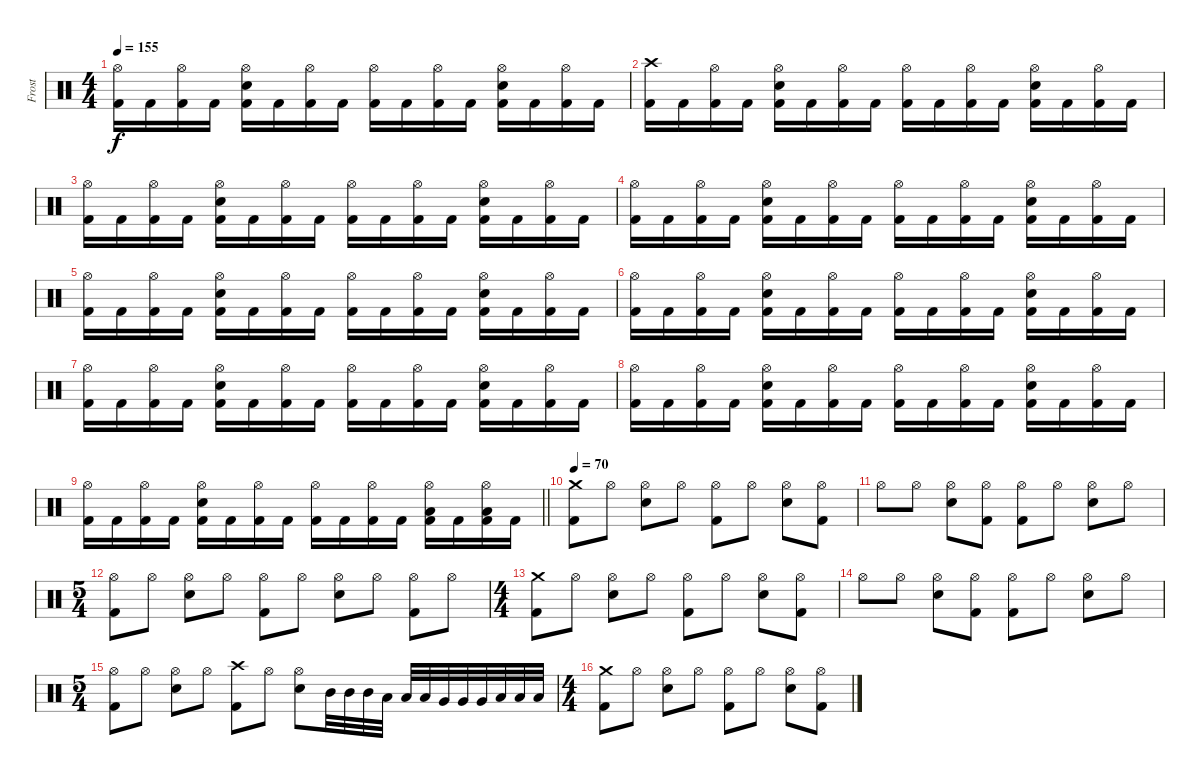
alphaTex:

\track ("Frost" "Frost") {instrument percussion}
\staff {score}
\articulation defaults
\ts (4 4)
\tempo 155
\clef neutral
\ks c
("Hi-Hat (open)" "Kick (hit) 2").16{dy f} "Kick (hit) 2".16 ("Hi-Hat (open)" "Kick (hit) 2").16 "Kick (hit) 2".16 ("Hi-Hat (open)" "Electric Snare (hit)" "Kick (hit) 2").16 "Kick (hit) 2".16 ("Hi-Hat (open)" "Kick (hit) 2").16 "Kick (hit) 2".16 ("Hi-Hat (open)" "Kick (hit) 2").16 "Kick (hit) 2".16 ("Hi-Hat (open)" "Kick (hit) 2").16 "Kick (hit) 2".16 ("Hi-Hat (open)" "Electric Snare (hit)" "Kick (hit) 2").16 "Kick (hit) 2".16 ("Hi-Hat (open)" "Kick (hit) 2").16 "Kick (hit) 2".16 |
("Crash high (hit)" "Kick (hit) 2").16 "Kick (hit) 2".16 ("Hi-Hat (open)" "Kick (hit) 2").16 "Kick (hit) 2".16 ("Hi-Hat (open)" "Electric Snare (hit)" "Kick (hit) 2").16 "Kick (hit) 2".16 ("Hi-Hat (open)" "Kick (hit) 2").16 "Kick (hit) 2".16 ("Hi-Hat (open)" "Kick (hit) 2").16 "Kick (hit) 2".16 ("Hi-Hat (open)" "Kick (hit) 2").16 "Kick (hit) 2".16 ("Hi-Hat (open)" "Electric Snare (hit)" "Kick (hit) 2").16 "Kick (hit) 2".16 ("Hi-Hat (open)" "Kick (hit) 2").16 "Kick (hit) 2".16 |
("Hi-Hat (open)" "Kick (hit) 2").16 "Kick (hit) 2".16 ("Hi-Hat (open)" "Kick (hit) 2").16 "Kick (hit) 2".16 ("Hi-Hat (open)" "Electric Snare (hit)" "Kick (hit) 2").16 "Kick (hit) 2".16 ("Hi-Hat (open)" "Kick (hit) 2").16 "Kick (hit) 2".16 ("Hi-Hat (open)" "Kick (hit) 2").16 "Kick (hit) 2".16 ("Hi-Hat (open)" "Kick (hit) 2").16 "Kick (hit) 2".16 ("Hi-Hat (open)" "Electric Snare (hit)" "Kick (hit) 2").16 "Kick (hit) 2".16 ("Hi-Hat (open)" "Kick (hit) 2").16 "Kick (hit) 2".16 |
("Hi-Hat (open)" "Kick (hit) 2").16 "Kick (hit) 2".16 ("Hi-Hat (open)" "Kick (hit) 2").16 "Kick (hit) 2".16 ("Hi-Hat (open)" "Electric Snare (hit)" "Kick (hit) 2").16 "Kick (hit) 2".16 ("Hi-Hat (open)" "Kick (hit) 2").16 "Kick (hit) 2".16 ("Hi-Hat (open)" "Kick (hit) 2").16 "Kick (hit) 2".16 ("Hi-Hat (open)" "Kick (hit) 2").16 "Kick (hit) 2".16 ("Hi-Hat (open)" "Electric Snare (hit)" "Kick (hit) 2").16 "Kick (hit) 2".16 ("Hi-Hat (open)" "Kick (hit) 2").16 "Kick (hit) 2".16 |
("Hi-Hat (open)" "Kick (hit) 2").16 "Kick (hit) 2".16 ("Hi-Hat (open)" "Kick (hit) 2").16 "Kick (hit) 2".16 ("Hi-Hat (open)" "Electric Snare (hit)" "Kick (hit) 2").16 "Kick (hit) 2".16 ("Hi-Hat (open)" "Kick (hit) 2").16 "Kick (hit) 2".16 ("Hi-Hat (open)" "Kick (hit) 2").16 "Kick (hit) 2".16 ("Hi-Hat (open)" "Kick (hit) 2").16 "Kick (hit) 2".16 ("Hi-Hat (open)" "Electric Snare (hit)" "Kick (hit) 2").16 "Kick (hit) 2".16 ("Hi-Hat (open)" "Kick (hit) 2").16 "Kick (hit) 2".16 |
("Hi-Hat (open)" "Kick (hit) 2").16 "Kick (hit) 2".16 ("Hi-Hat (open)" "Kick (hit) 2").16 "Kick (hit) 2".16 ("Hi-Hat (open)" "Electric Snare (hit)" "Kick (hit) 2").16 "Kick (hit) 2".16 ("Hi-Hat (open)" "Kick (hit) 2").16 "Kick (hit) 2".16 ("Hi-Hat (open)" "Kick (hit) 2").16 "Kick (hit) 2".16 ("Hi-Hat (open)" "Kick (hit) 2").16 "Kick (hit) 2".16 ("Hi-Hat (open)" "Electric Snare (hit)" "Kick (hit) 2").16 "Kick (hit) 2".16 ("Hi-Hat (open)" "Kick (hit) 2").16 "Kick (hit) 2".16 |
("Hi-Hat (open)" "Kick (hit) 2").16 "Kick (hit) 2".16 ("Hi-Hat (open)" "Kick (hit) 2").16 "Kick (hit) 2".16 ("Hi-Hat (open)" "Electric Snare (hit)" "Kick (hit) 2").16 "Kick (hit) 2".16 ("Hi-Hat (open)" "Kick (hit) 2").16 "Kick (hit) 2".16 ("Hi-Hat (open)" "Kick (hit) 2").16 "Kick (hit) 2".16 ("Hi-Hat (open)" "Kick (hit) 2").16 "Kick (hit) 2".16 ("Hi-Hat (open)" "Electric Snare (hit)" "Kick (hit) 2").16 "Kick (hit) 2".16 ("Hi-Hat (open)" "Kick (hit) 2").16 "Kick (hit) 2".16 |
("Hi-Hat (open)" "Kick (hit) 2").16 "Kick (hit) 2".16 ("Hi-Hat (open)" "Kick (hit) 2").16 "Kick (hit) 2".16 ("Hi-Hat (open)" "Electric Snare (hit)" "Kick (hit) 2").16 "Kick (hit) 2".16 ("Hi-Hat (open)" "Kick (hit) 2").16 "Kick (hit) 2".16 ("Hi-Hat (open)" "Kick (hit) 2").16 "Kick (hit) 2".16 ("Hi-Hat (open)" "Kick (hit) 2").16 "Kick (hit) 2".16 ("Hi-Hat (open)" "Electric Snare (hit)" "Kick (hit) 2").16 "Kick (hit) 2".16 ("Hi-Hat (open)" "Kick (hit) 2").16 "Kick (hit) 2".16 |
\barLineRight lightlight
("Hi-Hat (open)" "Kick (hit) 2").16 "Kick (hit) 2".16 ("Hi-Hat (open)" "Kick (hit) 2").16 "Kick (hit) 2".16 ("Hi-Hat (open)" "Electric Snare (hit)" "Kick (hit) 2").16 "Kick (hit) 2".16 ("Hi-Hat (open)" "Kick (hit) 2").16 "Kick (hit) 2".16 ("Hi-Hat (open)" "Kick (hit) 2").16 "Kick (hit) 2".16 ("Hi-Hat (open)" "Kick (hit) 2").16 "Kick (hit) 2".16 ("Hi-Hat (open)" "Low Tom (hit)" "Kick (hit) 2").16 "Kick (hit) 2".16 ("Hi-Hat (open)" "Low Tom (hit)" "Kick (hit) 2").16 "Kick (hit) 2".16 |
\section ("" "")
\tempo 70
("Crash medium (hit)" "Kick (hit) 2").8 "Hi-Hat (open)".8 ("Hi-Hat (open)" "Electric Snare (hit)").8 "Hi-Hat (open)".8 ("Hi-Hat (open)" "Kick (hit) 2").8 "Hi-Hat (open)".8 ("Hi-Hat (open)" "Electric Snare (hit)").8 ("Hi-Hat (open)" "Kick (hit) 2").8 |
"Hi-Hat (open)".8 "Hi-Hat (open)".8 ("Hi-Hat (open)" "Electric Snare (hit)").8 ("Hi-Hat (open)" "Kick (hit) 2").8 ("Hi-Hat (open)" "Kick (hit) 2").8 "Hi-Hat (open)".8 ("Hi-Hat (open)" "Electric Snare (hit)").8 "Hi-Hat (open)".8 |
\ts (5 4)
("Hi-Hat (open)" "Kick (hit) 2").8 "Hi-Hat (open)".8 ("Hi-Hat (open)" "Electric Snare (hit)").8 "Hi-Hat (open)".8 ("Hi-Hat (open)" "Kick (hit) 2").8 "Hi-Hat (open)".8 ("Hi-Hat (open)" "Electric Snare (hit)").8 "Hi-Hat (open)".8 ("Hi-Hat (open)" "Kick (hit) 2").8 "Hi-Hat (open)".8 |
\ts (4 4)
("Crash medium (hit)" "Kick (hit) 2").8 "Hi-Hat (open)".8 ("Hi-Hat (open)" "Electric Snare (hit)").8 "Hi-Hat (open)".8 ("Hi-Hat (open)" "Kick (hit) 2").8 "Hi-Hat (open)".8 ("Hi-Hat (open)" "Electric Snare (hit)").8 ("Hi-Hat (open)" "Kick (hit) 2").8 |
"Hi-Hat (open)".8 "Hi-Hat (open)".8 ("Hi-Hat (open)" "Electric Snare (hit)").8 ("Hi-Hat (open)" "Kick (hit) 2").8 ("Hi-Hat (open)" "Kick (hit) 2").8 "Hi-Hat (open)".8 ("Hi-Hat (open)" "Electric Snare (hit)").8 "Hi-Hat (open)".8 |
\ts (5 4)
("Hi-Hat (open)" "Kick (hit) 2").8 "Hi-Hat (open)".8 ("Hi-Hat (open)" "Electric Snare (hit)").8 "Hi-Hat (open)".8 ("Crash high (hit)" "Kick (hit) 2").8 "Hi-Hat (open)".8 ("Hi-Hat (open)" "Electric Snare (hit)").8 "Mid Tom (hit)".32 "Mid Tom (hit)".32 "Mid Tom (hit)".32 "Low Tom (hit)".32 "Low Tom (hit)".32 "Low Tom (hit)".32 "Very Low Tom (hit)".32 "Very Low Tom (hit)".32 "Very Low Tom (hit)".32 "Low Floor Tom (hit)".32 "Low Floor Tom (hit)".32 "Low Floor Tom (hit)".32 |
\ts (4 4)
("Crash medium (hit)" "Kick (hit) 2").8 "Hi-Hat (open)".8 ("Hi-Hat (open)" "Electric Snare (hit)").8 "Hi-Hat (open)".8 ("Hi-Hat (open)" "Kick (hit) 2").8 "Hi-Hat (open)".8 ("Hi-Hat (open)" "Electric Snare (hit)").8 ("Hi-Hat (open)" "Kick (hit) 2").8
